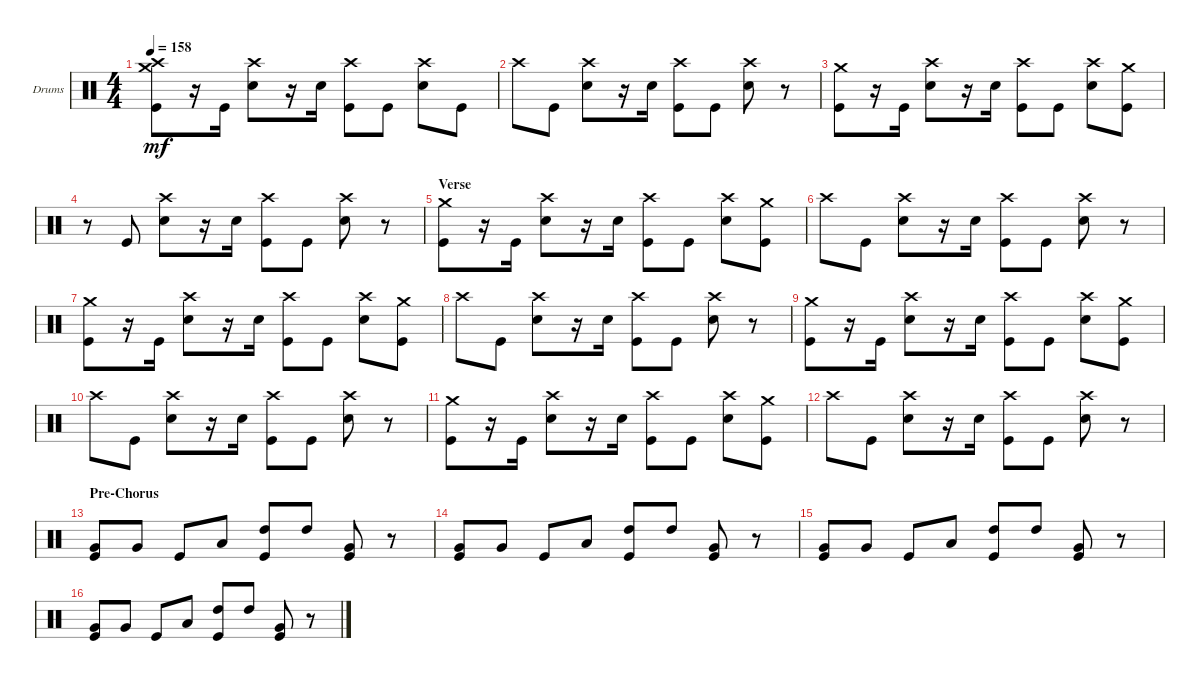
\defaultSystemsLayout 4
\bracketExtendMode groupsimilarinstruments
\firstSystemTrackNameOrientation horizontal
\otherSystemsTrackNameOrientation horizontal
\track ("Drumkit" "Drums") {instrument percussion}
\staff {score}
\articulation defaults
\ts (4 4)
\tempo 158
\clef neutral
\ks c
("Crash medium (hit)" "Kick (hit)" "Crash high (hit)").8{dy mf} r.16 "Kick (hit)".16 ("Snare (hit) 2" "Crash high (hit)").8 r.16 "Snare (hit) 2".16 ("Crash high (hit)" "Kick (hit)").8 "Kick (hit)".8 ("Snare (hit) 2" "Crash high (hit)").8 "Kick (hit)".8 |
"Crash high (hit)".8 "Kick (hit)".8 ("Snare (hit) 2" "Crash high (hit)").8 r.16 "Snare (hit) 2".16 ("Crash high (hit)" "Kick (hit)").8 "Kick (hit)".8 ("Snare (hit) 2" "Crash high (hit)").8 r.8 |
("Kick (hit)" "Crash medium (hit)").8 r.16 "Kick (hit)".16 ("Snare (hit) 2" "Crash high (hit)").8 r.16 "Snare (hit) 2".16 ("Crash high (hit)" "Kick (hit)").8 "Kick (hit)".8 ("Snare (hit) 2" "Crash high (hit)").8 ("Crash medium (hit)" "Kick (hit)").8 |
r.8 "Kick (hit)".8 ("Snare (hit) 2" "Crash high (hit)").8 r.16 "Snare (hit) 2".16 ("Crash high (hit)" "Kick (hit)").8 "Kick (hit)".8 ("Snare (hit) 2" "Crash high (hit)").8 r.8 |
\section ("" "Verse")
("Crash medium (hit)" "Kick (hit)").8 r.16 "Kick (hit)".16 ("Snare (hit) 2" "Crash high (hit)").8 r.16 "Snare (hit) 2".16 ("Crash high (hit)" "Kick (hit)").8 "Kick (hit)".8 ("Snare (hit) 2" "Crash high (hit)").8 ("Crash medium (hit)" "Kick (hit)").8 |
"Crash high (hit)".8 "Kick (hit)".8 ("Snare (hit) 2" "Crash high (hit)").8 r.16 "Snare (hit) 2".16 ("Crash high (hit)" "Kick (hit)").8 "Kick (hit)".8 ("Snare (hit) 2" "Crash high (hit)").8 r.8 |
("Crash medium (hit)" "Kick (hit)").8 r.16 "Kick (hit)".16 ("Snare (hit) 2" "Crash high (hit)").8 r.16 "Snare (hit) 2".16 ("Crash high (hit)" "Kick (hit)").8 "Kick (hit)".8 ("Snare (hit) 2" "Crash high (hit)").8 ("Crash medium (hit)" "Kick (hit)").8 |
"Crash high (hit)".8 "Kick (hit)".8 ("Snare (hit) 2" "Crash high (hit)").8 r.16 "Snare (hit) 2".16 ("Crash high (hit)" "Kick (hit)").8 "Kick (hit)".8 ("Snare (hit) 2" "Crash high (hit)").8 r.8 |
("Crash medium (hit)" "Kick (hit)").8 r.16 "Kick (hit)".16 ("Snare (hit) 2" "Crash high (hit)").8 r.16 "Snare (hit) 2".16 ("Crash high (hit)" "Kick (hit)").8 "Kick (hit)".8 ("Snare (hit) 2" "Crash high (hit)").8 ("Crash medium (hit)" "Kick (hit)").8 |
"Crash high (hit)".8 "Kick (hit)".8 ("Snare (hit) 2" "Crash high (hit)").8 r.16 "Snare (hit) 2".16 ("Crash high (hit)" "Kick (hit)").8 "Kick (hit)".8 ("Snare (hit) 2" "Crash high (hit)").8 r.8 |
("Crash medium (hit)" "Kick (hit)").8 r.16 "Kick (hit)".16 ("Snare (hit) 2" "Crash high (hit)").8 r.16 "Snare (hit) 2".16 ("Crash high (hit)" "Kick (hit)").8 "Kick (hit)".8 ("Snare (hit) 2" "Crash high (hit)").8 ("Crash medium (hit)" "Kick (hit)").8 |
"Crash high (hit)".8 "Kick (hit)".8 ("Snare (hit) 2" "Crash high (hit)").8 r.16 "Snare (hit) 2".16 ("Crash high (hit)" "Kick (hit)").8 "Kick (hit)".8 ("Snare (hit) 2" "Crash high (hit)").8 r.8 |
\section ("" "Pre-Chorus")
("Very Low Tom (hit)" "Kick (hit)").8 "Very Low Tom (hit)".8 "Kick (hit)".8 "Low Tom (hit)".8 ("High Tom (hit)" "Kick (hit)").8 "High Tom (hit)".8 ("Very Low Tom (hit)" "Kick (hit)").8 r.8 |
("Very Low Tom (hit)" "Kick (hit)").8 "Very Low Tom (hit)".8 "Kick (hit)".8 "Low Tom (hit)".8 ("High Tom (hit)" "Kick (hit)").8 "High Tom (hit)".8 ("Very Low Tom (hit)" "Kick (hit)").8 r.8 |
("Very Low Tom (hit)" "Kick (hit)").8 "Very Low Tom (hit)".8 "Kick (hit)".8 "Low Tom (hit)".8 ("High Tom (hit)" "Kick (hit)").8 "High Tom (hit)".8 ("Very Low Tom (hit)" "Kick (hit)").8 r.8 |
("Very Low Tom (hit)" "Kick (hit)").8 "Very Low Tom (hit)".8 "Kick (hit)".8 "Low Tom (hit)".8 ("High Tom (hit)" "Kick (hit)").8 "High Tom (hit)".8 ("Very Low Tom (hit)" "Kick (hit)").8 r.8
